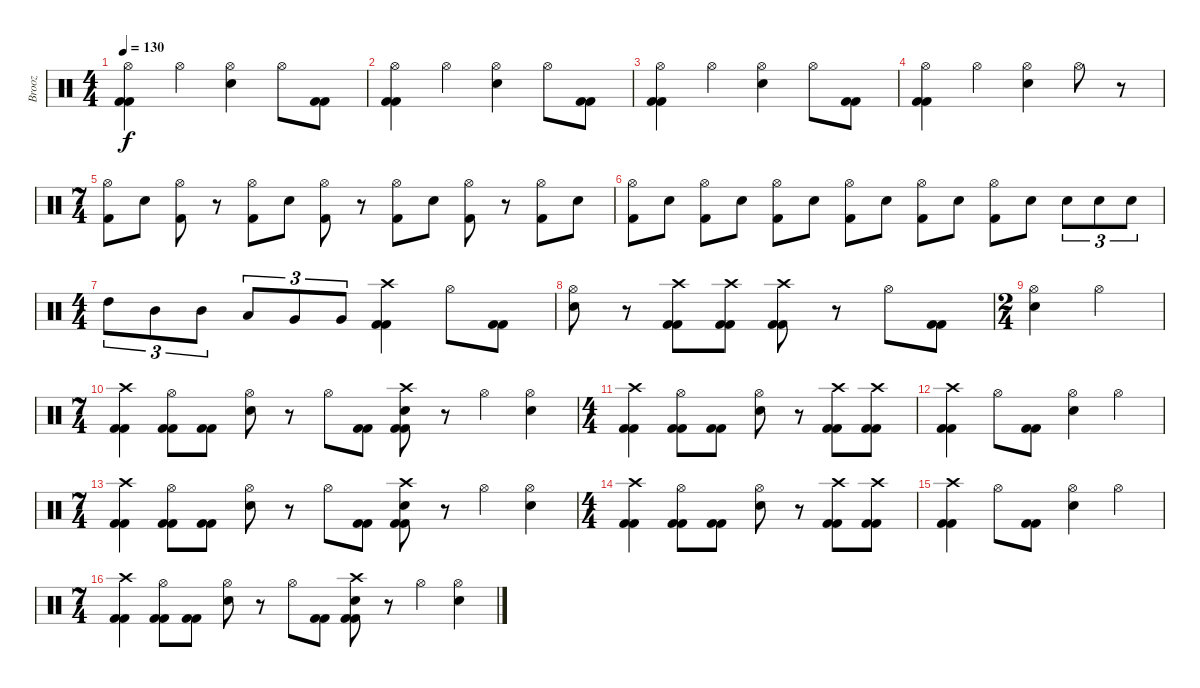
\track ("Brooz" "Brooz") {instrument percussion}
\staff {score}
\articulation defaults
\ts (4 4)
\tempo 130
\clef neutral
\ks c
("Hi-Hat (open)" "Kick (hit) 2" "Kick (hit) 2").4{dy f} "Hi-Hat (open)".4 ("Hi-Hat (open)" "Snare (hit) 2").4 "Hi-Hat (open)".8 ("Kick (hit) 2" "Kick (hit) 2").8 |
("Hi-Hat (open)" "Kick (hit) 2" "Kick (hit) 2").4 "Hi-Hat (open)".4 ("Hi-Hat (open)" "Snare (hit) 2").4 "Hi-Hat (open)".8 ("Kick (hit) 2" "Kick (hit) 2").8 |
("Hi-Hat (open)" "Kick (hit) 2" "Kick (hit) 2").4 "Hi-Hat (open)".4 ("Hi-Hat (open)" "Snare (hit) 2").4 "Hi-Hat (open)".8 ("Kick (hit) 2" "Kick (hit) 2").8 |
("Hi-Hat (open)" "Kick (hit) 2" "Kick (hit) 2").4 "Hi-Hat (open)".4 ("Hi-Hat (open)" "Snare (hit) 2").4 "Hi-Hat (open)".8 r.8 |
\ts (7 4)
("Hi-Hat (open)" "Kick (hit) 2").8 "Snare (hit) 2".8 ("Hi-Hat (open)" "Kick (hit) 2").8 r.8 ("Hi-Hat (open)" "Kick (hit) 2").8 "Snare (hit) 2".8 ("Hi-Hat (open)" "Kick (hit) 2").8 r.8 ("Hi-Hat (open)" "Kick (hit) 2").8 "Snare (hit) 2".8 ("Hi-Hat (open)" "Kick (hit) 2").8 r.8 ("Hi-Hat (open)" "Kick (hit) 2").8 "Snare (hit) 2".8 |
("Hi-Hat (open)" "Kick (hit) 2").8 "Snare (hit) 2".8 ("Hi-Hat (open)" "Kick (hit) 2").8 "Snare (hit) 2".8 ("Hi-Hat (open)" "Kick (hit) 2").8 "Snare (hit) 2".8 ("Hi-Hat (open)" "Kick (hit) 2").8 "Snare (hit) 2".8 ("Hi-Hat (open)" "Kick (hit) 2").8 "Snare (hit) 2".8 ("Hi-Hat (open)" "Kick (hit) 2").8 "Snare (hit) 2".8 "Snare (hit) 2".8{tu (3 2)} "Snare (hit) 2".8{tu (3 2)} "Snare (hit) 2".8{tu (3 2)} |
\ts (4 4)
"High Tom (hit)".8{tu (3 2)} "Mid Tom (hit)".8{tu (3 2)} "Mid Tom (hit)".8{tu (3 2)} "Low Tom (hit)".8{tu (3 2)} "Very Low Tom (hit)".8{tu (3 2)} "Very Low Tom (hit)".8{tu (3 2)} ("Crash high (hit)" "Kick (hit) 2" "Kick (hit) 2").4 "Hi-Hat (open)".8 ("Kick (hit) 2" "Kick (hit) 2").8 |
("Hi-Hat (open)" "Snare (hit) 2").8 r.8 ("Crash high (hit)" "Kick (hit) 2" "Kick (hit) 2").8 ("Crash high (hit)" "Kick (hit) 2" "Kick (hit) 2").8 ("Crash high (hit)" "Kick (hit) 2" "Kick (hit) 2").8 r.8 "Hi-Hat (open)".8 ("Kick (hit) 2" "Kick (hit) 2").8 |
\ts (2 4)
("Hi-Hat (open)" "Snare (hit) 2").4 "Hi-Hat (open)".4 |
\ts (7 4)
("Crash high (hit)" "Kick (hit) 2" "Kick (hit) 2").4 ("Hi-Hat (open)" "Kick (hit) 2" "Kick (hit) 2").8 ("Kick (hit) 2" "Kick (hit) 2").8 ("Hi-Hat (open)" "Snare (hit) 2").8 r.8 "Hi-Hat (open)".8 ("Kick (hit) 2" "Kick (hit) 2").8 ("Crash high (hit)" "Snare (hit) 2" "Kick (hit) 2" "Kick (hit) 2").8 r.8 "Hi-Hat (open)".4 ("Hi-Hat (open)" "Snare (hit) 2").4 |
\ts (4 4)
("Crash high (hit)" "Kick (hit) 2" "Kick (hit) 2").4 ("Hi-Hat (open)" "Kick (hit) 2" "Kick (hit) 2").8 ("Kick (hit) 2" "Kick (hit) 2").8 ("Hi-Hat (open)" "Snare (hit) 2").8 r.8 ("Crash high (hit)" "Kick (hit) 2" "Kick (hit) 2").8 ("Crash high (hit)" "Kick (hit) 2" "Kick (hit) 2").8 |
("Crash high (hit)" "Kick (hit) 2" "Kick (hit) 2").4 "Hi-Hat (open)".8 ("Kick (hit) 2" "Kick (hit) 2").8 ("Hi-Hat (open)" "Snare (hit) 2").4 "Hi-Hat (open)".4 |
\ts (7 4)
("Crash high (hit)" "Kick (hit) 2" "Kick (hit) 2").4 ("Hi-Hat (open)" "Kick (hit) 2" "Kick (hit) 2").8 ("Kick (hit) 2" "Kick (hit) 2").8 ("Hi-Hat (open)" "Snare (hit) 2").8 r.8 "Hi-Hat (open)".8 ("Kick (hit) 2" "Kick (hit) 2").8 ("Crash high (hit)" "Snare (hit) 2" "Kick (hit) 2" "Kick (hit) 2").8 r.8 "Hi-Hat (open)".4 ("Hi-Hat (open)" "Snare (hit) 2").4 |
\ts (4 4)
("Crash high (hit)" "Kick (hit) 2" "Kick (hit) 2").4 ("Hi-Hat (open)" "Kick (hit) 2" "Kick (hit) 2").8 ("Kick (hit) 2" "Kick (hit) 2").8 ("Hi-Hat (open)" "Snare (hit) 2").8 r.8 ("Crash high (hit)" "Kick (hit) 2" "Kick (hit) 2").8 ("Crash high (hit)" "Kick (hit) 2" "Kick (hit) 2").8 |
("Crash high (hit)" "Kick (hit) 2" "Kick (hit) 2").4 "Hi-Hat (open)".8 ("Kick (hit) 2" "Kick (hit) 2").8 ("Hi-Hat (open)" "Snare (hit) 2").4 "Hi-Hat (open)".4 |
\ts (7 4)
("Crash high (hit)" "Kick (hit) 2" "Kick (hit) 2").4 ("Hi-Hat (open)" "Kick (hit) 2" "Kick (hit) 2").8 ("Kick (hit) 2" "Kick (hit) 2").8 ("Hi-Hat (open)" "Snare (hit) 2").8 r.8 "Hi-Hat (open)".8 ("Kick (hit) 2" "Kick (hit) 2").8 ("Crash high (hit)" "Snare (hit) 2" "Kick (hit) 2" "Kick (hit) 2").8 r.8 "Hi-Hat (open)".4 ("Hi-Hat (open)" "Snare (hit) 2").4
